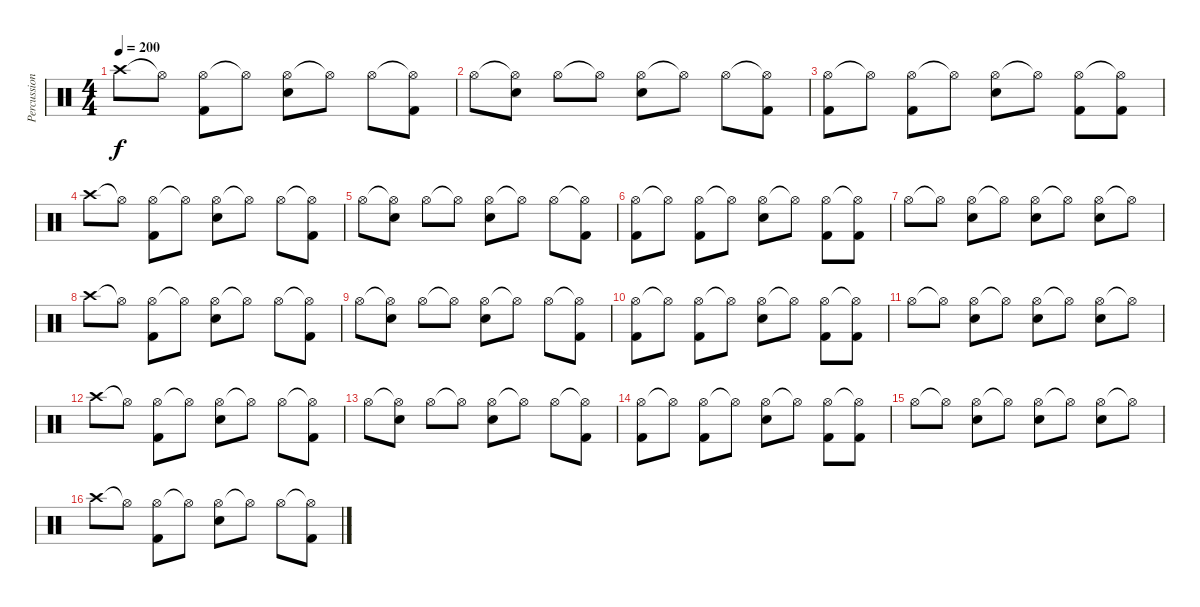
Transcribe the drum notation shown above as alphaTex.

\track ("Percussioni" "Percussion") {instrument percussion}
\staff {score}
\articulation defaults
\ts (4 4)
\tempo 200
\clef neutral
\ks c "Crash high (hit)".8{dy f} "Hi-Hat (open)"{t}.8
("Hi-Hat (open)" "Kick (hit) 2").8 "Hi-Hat (open)"{t}.8 ("Hi-Hat (open)" "Snare (hit) 2").8 "Hi-Hat (open)"{t}.8 "Hi-Hat (open)".8 ("Hi-Hat (open)"{t} "Kick (hit) 2").8 |
"Hi-Hat (open)".8 ("Hi-Hat (open)"{t} "Snare (hit) 2").8 "Hi-Hat (open)".8 "Hi-Hat (open)"{t}.8 ("Hi-Hat (open)" "Snare (hit) 2").8 "Hi-Hat (open)"{t}.8 "Hi-Hat (open)".8 ("Hi-Hat (open)"{t} "Kick (hit) 2").8 |
("Hi-Hat (open)" "Kick (hit) 2").8 "Hi-Hat (open)"{t}.8 ("Hi-Hat (open)" "Kick (hit) 2").8 "Hi-Hat (open)"{t}.8 ("Hi-Hat (open)" "Snare (hit) 2").8 "Hi-Hat (open)"{t}.8 ("Hi-Hat (open)" "Kick (hit) 2").8 ("Hi-Hat (open)"{t} "Kick (hit) 2").8 |
"Crash high (hit)".8 "Hi-Hat (open)"{t}.8 ("Hi-Hat (open)" "Kick (hit) 2").8 "Hi-Hat (open)"{t}.8 ("Hi-Hat (open)" "Snare (hit) 2").8 "Hi-Hat (open)"{t}.8 "Hi-Hat (open)".8 ("Hi-Hat (open)"{t} "Kick (hit) 2").8 |
"Hi-Hat (open)".8 ("Hi-Hat (open)"{t} "Snare (hit) 2").8 "Hi-Hat (open)".8 "Hi-Hat (open)"{t}.8 ("Hi-Hat (open)" "Snare (hit) 2").8 "Hi-Hat (open)"{t}.8 "Hi-Hat (open)".8 ("Hi-Hat (open)"{t} "Kick (hit) 2").8 |
("Hi-Hat (open)" "Kick (hit) 2").8 "Hi-Hat (open)"{t}.8 ("Hi-Hat (open)" "Kick (hit) 2").8 "Hi-Hat (open)"{t}.8 ("Hi-Hat (open)" "Snare (hit) 2").8 "Hi-Hat (open)"{t}.8 ("Hi-Hat (open)" "Kick (hit) 2").8 ("Hi-Hat (open)"{t} "Kick (hit) 2").8 |
"Hi-Hat (open)".8 "Hi-Hat (open)"{t}.8 ("Hi-Hat (open)" "Snare (hit) 2").8 "Hi-Hat (open)"{t}.8 ("Hi-Hat (open)" "Snare (hit) 2").8 "Hi-Hat (open)"{t}.8 ("Hi-Hat (open)" "Snare (hit) 2").8 "Hi-Hat (open)"{t}.8 |
"Crash high (hit)".8 "Hi-Hat (open)"{t}.8 ("Hi-Hat (open)" "Kick (hit) 2").8 "Hi-Hat (open)"{t}.8 ("Hi-Hat (open)" "Snare (hit) 2").8 "Hi-Hat (open)"{t}.8 "Hi-Hat (open)".8 ("Hi-Hat (open)"{t} "Kick (hit) 2").8 |
"Hi-Hat (open)".8 ("Hi-Hat (open)"{t} "Snare (hit) 2").8 "Hi-Hat (open)".8 "Hi-Hat (open)"{t}.8 ("Hi-Hat (open)" "Snare (hit) 2").8 "Hi-Hat (open)"{t}.8 "Hi-Hat (open)".8 ("Hi-Hat (open)"{t} "Kick (hit) 2").8 |
("Hi-Hat (open)" "Kick (hit) 2").8 "Hi-Hat (open)"{t}.8 ("Hi-Hat (open)" "Kick (hit) 2").8 "Hi-Hat (open)"{t}.8 ("Hi-Hat (open)" "Snare (hit) 2").8 "Hi-Hat (open)"{t}.8 ("Hi-Hat (open)" "Kick (hit) 2").8 ("Hi-Hat (open)"{t} "Kick (hit) 2").8 |
"Hi-Hat (open)".8 "Hi-Hat (open)"{t}.8 ("Hi-Hat (open)" "Snare (hit) 2").8 "Hi-Hat (open)"{t}.8 ("Hi-Hat (open)" "Snare (hit) 2").8 "Hi-Hat (open)"{t}.8 ("Hi-Hat (open)" "Snare (hit) 2").8 "Hi-Hat (open)"{t}.8 |
"Crash high (hit)".8 "Hi-Hat (open)"{t}.8 ("Hi-Hat (open)" "Kick (hit) 2").8 "Hi-Hat (open)"{t}.8 ("Hi-Hat (open)" "Snare (hit) 2").8 "Hi-Hat (open)"{t}.8 "Hi-Hat (open)".8 ("Hi-Hat (open)"{t} "Kick (hit) 2").8 |
"Hi-Hat (open)".8 ("Hi-Hat (open)"{t} "Snare (hit) 2").8 "Hi-Hat (open)".8 "Hi-Hat (open)"{t}.8 ("Hi-Hat (open)" "Snare (hit) 2").8 "Hi-Hat (open)"{t}.8 "Hi-Hat (open)".8 ("Hi-Hat (open)"{t} "Kick (hit) 2").8 |
("Hi-Hat (open)" "Kick (hit) 2").8 "Hi-Hat (open)"{t}.8 ("Hi-Hat (open)" "Kick (hit) 2").8 "Hi-Hat (open)"{t}.8 ("Hi-Hat (open)" "Snare (hit) 2").8 "Hi-Hat (open)"{t}.8 ("Hi-Hat (open)" "Kick (hit) 2").8 ("Hi-Hat (open)"{t} "Kick (hit) 2").8 |
"Hi-Hat (open)".8 "Hi-Hat (open)"{t}.8 ("Hi-Hat (open)" "Snare (hit) 2").8 "Hi-Hat (open)"{t}.8 ("Hi-Hat (open)" "Snare (hit) 2").8 "Hi-Hat (open)"{t}.8 ("Hi-Hat (open)" "Snare (hit) 2").8 "Hi-Hat (open)"{t}.8 |
"Crash high (hit)".8 "Hi-Hat (open)"{t}.8 ("Hi-Hat (open)" "Kick (hit) 2").8 "Hi-Hat (open)"{t}.8 ("Hi-Hat (open)" "Snare (hit) 2").8 "Hi-Hat (open)"{t}.8 "Hi-Hat (open)".8 ("Hi-Hat (open)"{t} "Kick (hit) 2").8
